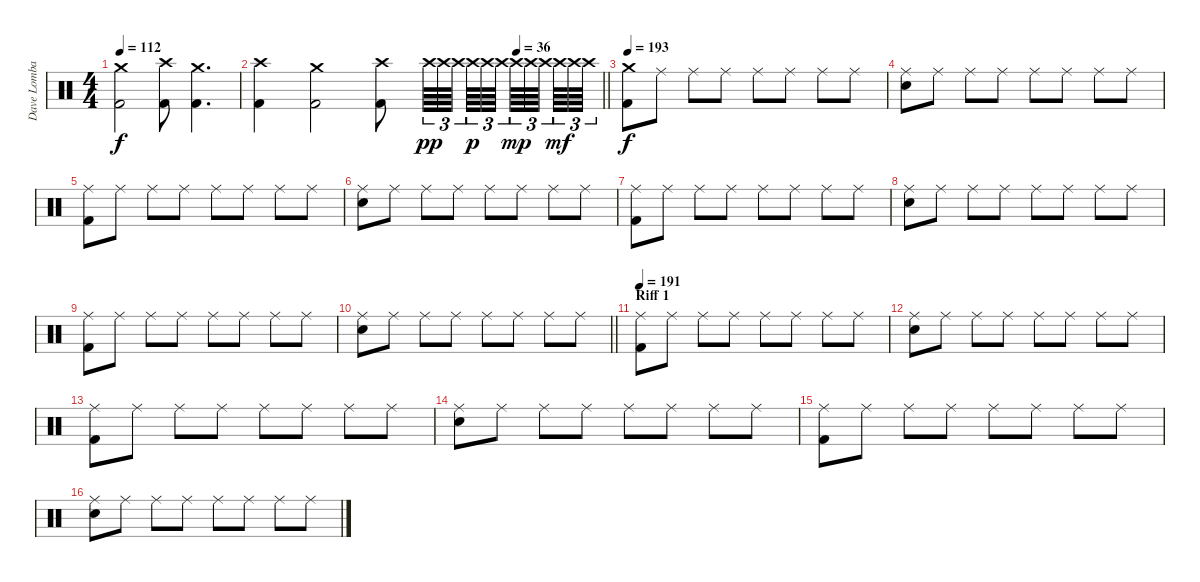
\track ("Dave Lombardo" "Dave Lomba") {instrument percussion}
\staff {score}
\articulation defaults
\ts (4 4)
\tempo 112
\clef neutral
\ks c
("Crash medium (hit)" "Kick (hit) 2").2{dy f} ("Crash high (hit)" "Kick (hit) 2").8 ("Crash medium (hit)" "Kick (hit) 2").4{d} |
\tempo (36 0.75)
\barLineRight lightlight
("Crash high (hit)" "Kick (hit) 2").4 ("Crash medium (hit)" "Kick (hit) 2").2 ("Crash high (hit)" "Kick (hit) 2").8 "Crash high (hit)".64{tu (3 2) dy pp} "Crash high (hit)".64{tu (3 2)} "Crash high (hit)".64{tu (3 2) beam splitsecondary} "Crash high (hit)".64{tu (3 2) dy p} "Crash high (hit)".64{tu (3 2)} "Crash high (hit)".64{tu (3 2) beam splitsecondary} "Crash high (hit)".64{tu (3 2) dy mp} "Crash high (hit)".64{tu (3 2)} "Crash high (hit)".64{tu (3 2) beam splitsecondary} "Crash high (hit)".64{tu (3 2) dy mf} "Crash high (hit)".64{tu (3 2)} "Crash high (hit)".64{tu (3 2)} |
\tempo 193
("Crash medium (hit)" "Kick (hit) 2").8{dy f} "Ride (middle)".8 "Ride (middle)".8 "Ride (middle)".8 "Ride (middle)".8 "Ride (middle)".8 "Ride (middle)".8 "Ride (middle)".8 |
("Ride (middle)" "Snare (hit) 2").8 "Ride (middle)".8 "Ride (middle)".8 "Ride (middle)".8 "Ride (middle)".8 "Ride (middle)".8 "Ride (middle)".8 "Ride (middle)".8 |
("Ride (middle)" "Kick (hit) 2").8 "Ride (middle)".8 "Ride (middle)".8 "Ride (middle)".8 "Ride (middle)".8 "Ride (middle)".8 "Ride (middle)".8 "Ride (middle)".8 |
("Ride (middle)" "Snare (hit) 2").8 "Ride (middle)".8 "Ride (middle)".8 "Ride (middle)".8 "Ride (middle)".8 "Ride (middle)".8 "Ride (middle)".8 "Ride (middle)".8 |
("Ride (middle)" "Kick (hit) 2").8 "Ride (middle)".8 "Ride (middle)".8 "Ride (middle)".8 "Ride (middle)".8 "Ride (middle)".8 "Ride (middle)".8 "Ride (middle)".8 |
("Ride (middle)" "Snare (hit) 2").8 "Ride (middle)".8 "Ride (middle)".8 "Ride (middle)".8 "Ride (middle)".8 "Ride (middle)".8 "Ride (middle)".8 "Ride (middle)".8 |
("Ride (middle)" "Kick (hit) 2").8 "Ride (middle)".8 "Ride (middle)".8 "Ride (middle)".8 "Ride (middle)".8 "Ride (middle)".8 "Ride (middle)".8 "Ride (middle)".8 |
\barLineRight lightlight
("Ride (middle)" "Snare (hit) 2").8 "Ride (middle)".8 "Ride (middle)".8 "Ride (middle)".8 "Ride (middle)".8 "Ride (middle)".8 "Ride (middle)".8 "Ride (middle)".8 |
\section ("" "Riff 1")
\tempo 191
("Ride (middle)" "Kick (hit) 2").8 "Ride (middle)".8 "Ride (middle)".8 "Ride (middle)".8 "Ride (middle)".8 "Ride (middle)".8 "Ride (middle)".8 "Ride (middle)".8 |
("Ride (middle)" "Snare (hit) 2").8 "Ride (middle)".8 "Ride (middle)".8 "Ride (middle)".8 "Ride (middle)".8 "Ride (middle)".8 "Ride (middle)".8 "Ride (middle)".8 |
("Ride (middle)" "Kick (hit) 2").8 "Ride (middle)".8 "Ride (middle)".8 "Ride (middle)".8 "Ride (middle)".8 "Ride (middle)".8 "Ride (middle)".8 "Ride (middle)".8 |
("Ride (middle)" "Snare (hit) 2").8 "Ride (middle)".8 "Ride (middle)".8 "Ride (middle)".8 "Ride (middle)".8 "Ride (middle)".8 "Ride (middle)".8 "Ride (middle)".8 |
("Ride (middle)" "Kick (hit) 2").8 "Ride (middle)".8 "Ride (middle)".8 "Ride (middle)".8 "Ride (middle)".8 "Ride (middle)".8 "Ride (middle)".8 "Ride (middle)".8 |
("Ride (middle)" "Snare (hit) 2").8 "Ride (middle)".8 "Ride (middle)".8 "Ride (middle)".8 "Ride (middle)".8 "Ride (middle)".8 "Ride (middle)".8 "Ride (middle)".8
